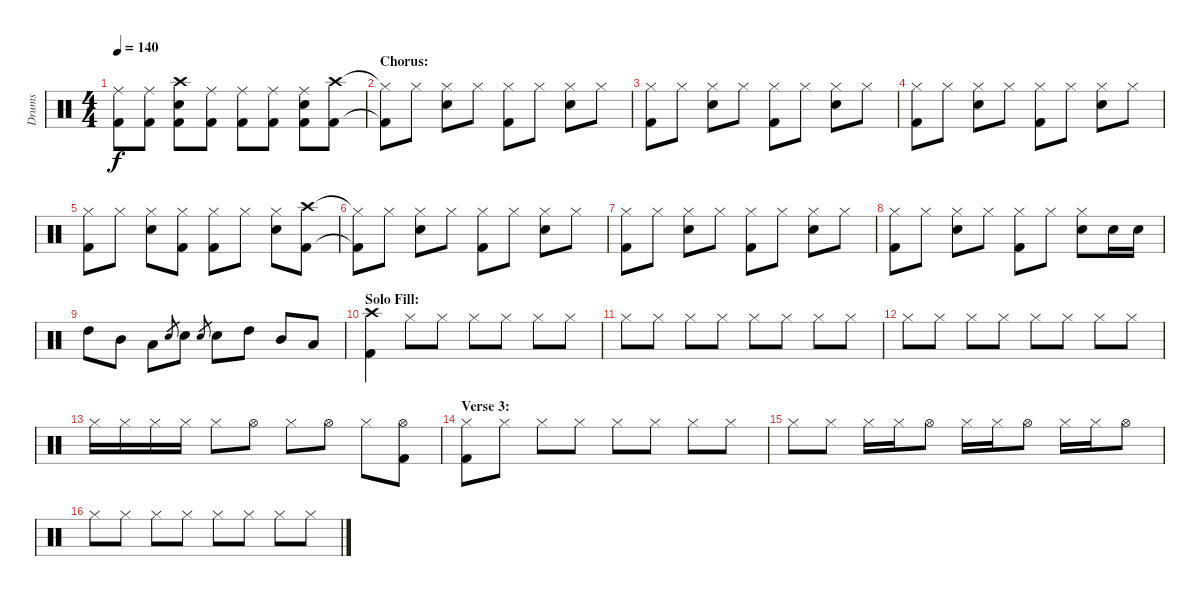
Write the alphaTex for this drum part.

\track ("Drums" "Drums") {instrument percussion}
\staff {score}
\articulation defaults
\ts (4 4)
\tempo 140
\clef neutral
\ks c
("Ride (middle)" "Kick (hit) 2").8{dy f} ("Ride (middle)" "Kick (hit) 2").8 ("Crash high (hit)" "Electric Snare (hit)" "Kick (hit) 2").8 ("Ride (middle)" "Kick (hit) 2").8 ("Ride (middle)" "Kick (hit) 2").8 ("Ride (middle)" "Kick (hit) 2").8 ("Ride (middle)" "Electric Snare (hit)" "Kick (hit) 2").8 ("Crash high (hit)" "Kick (hit) 2").8 |
\section ("" "Chorus:")
("Hi-Hat (closed)"{t} "Kick (hit) 2"{t}).8 "Hi-Hat (closed)".8 ("Hi-Hat (closed)" "Electric Snare (hit)").8 "Hi-Hat (closed)".8 ("Hi-Hat (closed)" "Kick (hit) 2").8 "Hi-Hat (closed)".8 ("Hi-Hat (closed)" "Electric Snare (hit)").8 "Hi-Hat (closed)".8 |
("Hi-Hat (closed)" "Kick (hit) 2").8 "Hi-Hat (closed)".8 ("Hi-Hat (closed)" "Electric Snare (hit)").8 "Hi-Hat (closed)".8 ("Hi-Hat (closed)" "Kick (hit) 2").8 "Hi-Hat (closed)".8 ("Hi-Hat (closed)" "Electric Snare (hit)").8 "Hi-Hat (closed)".8 |
("Hi-Hat (closed)" "Kick (hit) 2").8 "Hi-Hat (closed)".8 ("Hi-Hat (closed)" "Electric Snare (hit)").8 "Hi-Hat (closed)".8 ("Hi-Hat (closed)" "Kick (hit) 2").8 "Hi-Hat (closed)".8 ("Hi-Hat (closed)" "Electric Snare (hit)").8 "Hi-Hat (closed)".8 |
("Hi-Hat (closed)" "Kick (hit) 2").8 "Hi-Hat (closed)".8 ("Hi-Hat (closed)" "Electric Snare (hit)").8 ("Hi-Hat (closed)" "Kick (hit) 2").8 ("Hi-Hat (closed)" "Kick (hit) 2").8 "Hi-Hat (closed)".8 ("Hi-Hat (closed)" "Electric Snare (hit)").8 ("Crash high (hit)" "Kick (hit) 2").8 |
("Hi-Hat (closed)"{t} "Kick (hit) 2"{t}).8 "Hi-Hat (closed)".8 ("Hi-Hat (closed)" "Electric Snare (hit)").8 "Hi-Hat (closed)".8 ("Hi-Hat (closed)" "Kick (hit) 2").8 "Hi-Hat (closed)".8 ("Hi-Hat (closed)" "Electric Snare (hit)").8 "Hi-Hat (closed)".8 |
("Hi-Hat (closed)" "Kick (hit) 2").8 "Hi-Hat (closed)".8 ("Hi-Hat (closed)" "Electric Snare (hit)").8 "Hi-Hat (closed)".8 ("Hi-Hat (closed)" "Kick (hit) 2").8 "Hi-Hat (closed)".8 ("Hi-Hat (closed)" "Electric Snare (hit)").8 "Hi-Hat (closed)".8 |
("Hi-Hat (closed)" "Kick (hit) 2").8 "Hi-Hat (closed)".8 ("Hi-Hat (closed)" "Electric Snare (hit)").8 "Hi-Hat (closed)".8 ("Hi-Hat (closed)" "Kick (hit) 2").8 "Hi-Hat (closed)".8 ("Hi-Hat (closed)" "Electric Snare (hit)").8 "Electric Snare (hit)".16 "Electric Snare (hit)".16 |
"High Tom (hit)".8 "Mid Tom (hit)".8 "Low Tom (hit)".8 "Electric Snare (hit)".8{gr} "Electric Snare (hit)".8 "Electric Snare (hit)".8{gr} "Electric Snare (hit)".8 "High Tom (hit)".8 "Mid Tom (hit)".8 "Low Tom (hit)".8 |
\section ("" "Solo Fill:")
("Crash high (hit)" "Kick (hit) 2").4 "Hi-Hat (closed)".8 "Hi-Hat (closed)".8 "Hi-Hat (closed)".8 "Hi-Hat (closed)".8 "Hi-Hat (closed)".8 "Hi-Hat (closed)".8 |
"Hi-Hat (closed)".8 "Hi-Hat (closed)".8 "Hi-Hat (closed)".8 "Hi-Hat (closed)".8 "Hi-Hat (closed)".8 "Hi-Hat (closed)".8 "Hi-Hat (closed)".8 "Hi-Hat (closed)".8 |
"Hi-Hat (closed)".8 "Hi-Hat (closed)".8 "Hi-Hat (closed)".8 "Hi-Hat (closed)".8 "Hi-Hat (closed)".8 "Hi-Hat (closed)".8 "Hi-Hat (closed)".8 "Hi-Hat (closed)".8 |
"Hi-Hat (closed)".16 "Hi-Hat (closed)".16 "Hi-Hat (closed)".16 "Hi-Hat (closed)".16 "Hi-Hat (closed)".8 "Hi-Hat (open)".8 "Hi-Hat (closed)".8 "Hi-Hat (open)".8 "Hi-Hat (closed)".8 ("Hi-Hat (open)" "Kick (hit) 2").8 |
\section ("" "Verse 3:")
("Hi-Hat (closed)" "Kick (hit) 2").8 "Hi-Hat (closed)".8 "Hi-Hat (closed)".8 "Hi-Hat (closed)".8 "Hi-Hat (closed)".8 "Hi-Hat (closed)".8 "Hi-Hat (closed)".8 "Hi-Hat (closed)".8 |
"Hi-Hat (closed)".8 "Hi-Hat (closed)".8 "Hi-Hat (closed)".16 "Hi-Hat (closed)".16 "Hi-Hat (open)".8 "Hi-Hat (closed)".16 "Hi-Hat (closed)".16 "Hi-Hat (open)".8 "Hi-Hat (closed)".16 "Hi-Hat (closed)".16 "Hi-Hat (open)".8 |
"Hi-Hat (closed)".8 "Hi-Hat (closed)".8 "Hi-Hat (closed)".8 "Hi-Hat (closed)".8 "Hi-Hat (closed)".8 "Hi-Hat (closed)".8 "Hi-Hat (closed)".8 "Hi-Hat (closed)".8
